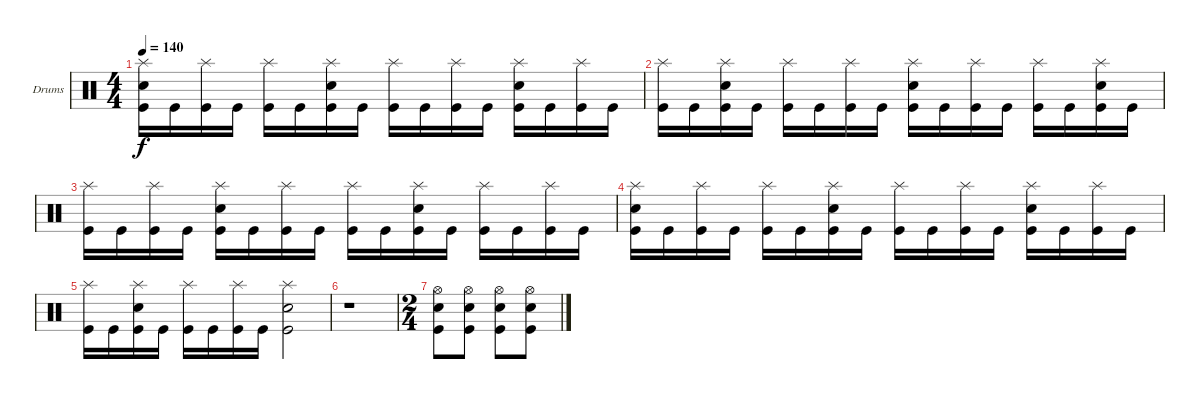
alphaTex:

\bracketExtendMode groupsimilarinstruments
\firstSystemTrackNameOrientation horizontal
\otherSystemsTrackNameOrientation horizontal
\track ("Drumkit" "Drums") {instrument percussion}
\staff {score}
\articulation defaults
\ts (4 4)
\tempo 140
\clef neutral
\ks c
("Kick (hit)" "Snare (hit) 2" "Splash (hit)").16{dy f} "Kick (hit)".16 ("Kick (hit)" "Splash (hit)").16 "Kick (hit)".16 ("Kick (hit)" "Splash (hit)").16 "Kick (hit)".16 ("Kick (hit)" "Snare (hit) 2" "Splash (hit)").16 "Kick (hit)".16 ("Kick (hit)" "Splash (hit)").16 "Kick (hit)".16 ("Kick (hit)" "Splash (hit)").16 "Kick (hit)".16 ("Kick (hit)" "Snare (hit) 2" "Splash (hit)").16 "Kick (hit)".16 ("Kick (hit)" "Splash (hit)").16 "Kick (hit)".16 |
("Kick (hit)" "Splash (hit)").16 "Kick (hit)".16 ("Kick (hit)" "Snare (hit) 2" "Splash (hit)").16 "Kick (hit)".16 ("Kick (hit)" "Splash (hit)").16 "Kick (hit)".16 ("Kick (hit)" "Splash (hit)").16 "Kick (hit)".16 ("Kick (hit)" "Snare (hit) 2" "Splash (hit)").16 "Kick (hit)".16 ("Kick (hit)" "Splash (hit)").16 "Kick (hit)".16 ("Kick (hit)" "Splash (hit)").16 "Kick (hit)".16 ("Kick (hit)" "Snare (hit) 2" "Splash (hit)").16 "Kick (hit)".16 |
("Kick (hit)" "Splash (hit)").16 "Kick (hit)".16 ("Kick (hit)" "Splash (hit)").16 "Kick (hit)".16 ("Kick (hit)" "Snare (hit) 2" "Splash (hit)").16 "Kick (hit)".16 ("Kick (hit)" "Splash (hit)").16 "Kick (hit)".16 ("Kick (hit)" "Splash (hit)").16 "Kick (hit)".16 ("Kick (hit)" "Snare (hit) 2" "Splash (hit)").16 "Kick (hit)".16 ("Kick (hit)" "Splash (hit)").16 "Kick (hit)".16 ("Kick (hit)" "Splash (hit)").16 "Kick (hit)".16 |
("Kick (hit)" "Snare (hit) 2" "Splash (hit)").16 "Kick (hit)".16 ("Kick (hit)" "Splash (hit)").16 "Kick (hit)".16 ("Kick (hit)" "Splash (hit)").16 "Kick (hit)".16 ("Kick (hit)" "Snare (hit) 2" "Splash (hit)").16 "Kick (hit)".16 ("Kick (hit)" "Splash (hit)").16 "Kick (hit)".16 ("Kick (hit)" "Splash (hit)").16 "Kick (hit)".16 ("Kick (hit)" "Snare (hit) 2" "Splash (hit)").16 "Kick (hit)".16 ("Kick (hit)" "Splash (hit)").16 "Kick (hit)".16 |
("Kick (hit)" "Splash (hit)").16 "Kick (hit)".16 ("Kick (hit)" "Snare (hit) 2" "Splash (hit)").16 "Kick (hit)".16 ("Kick (hit)" "Splash (hit)").16 "Kick (hit)".16 ("Kick (hit)" "Splash (hit)").16 "Kick (hit)".16 ("Kick (hit)" "Snare (hit) 2" "Splash (hit)").2 |
r.1 |
\ts (2 4)
("Kick (hit)" "Snare (hit) 2" "Hi-Hat (open)").8 ("Kick (hit)" "Snare (hit) 2" "Hi-Hat (open)").8 ("Kick (hit)" "Snare (hit) 2" "Hi-Hat (open)").8 ("Kick (hit)" "Snare (hit) 2" "Hi-Hat (open)").8
